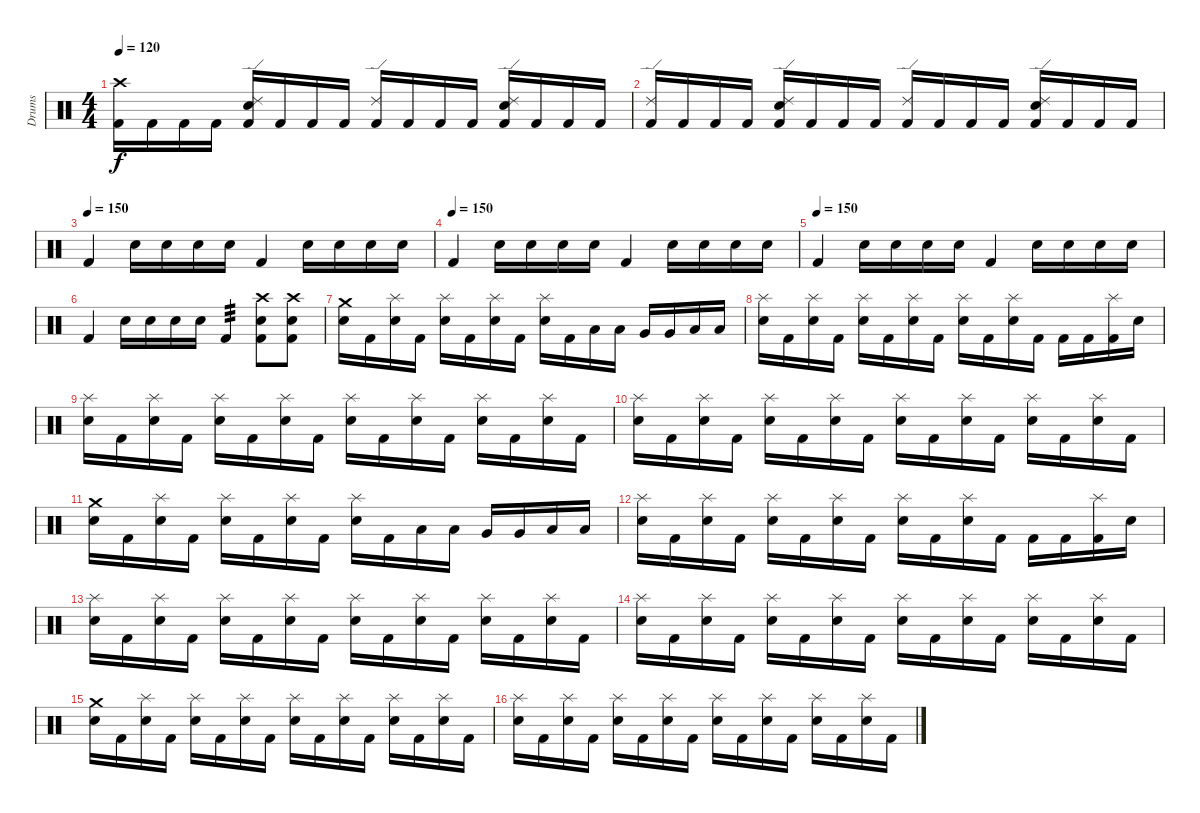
\track ("Drums" "Drums") {instrument percussion}
\staff {score}
\articulation defaults
\ts (4 4)
\tempo 120
\clef neutral
\ks c
("Crash high (hit)" "Kick (hit) 2").16{dy f} "Kick (hit) 2".16 "Kick (hit) 2".16 "Kick (hit) 2".16 ("Ride (edge) 2" "Electric Snare (hit)" "Kick (hit) 2").16 "Kick (hit) 2".16 "Kick (hit) 2".16 "Kick (hit) 2".16 ("Ride (edge) 2" "Kick (hit) 2").16 "Kick (hit) 2".16 "Kick (hit) 2".16 "Kick (hit) 2".16 ("Ride (edge) 2" "Electric Snare (hit)" "Kick (hit) 2").16 "Kick (hit) 2".16 "Kick (hit) 2".16 "Kick (hit) 2".16 |
("Ride (edge) 2" "Kick (hit) 2").16 "Kick (hit) 2".16 "Kick (hit) 2".16 "Kick (hit) 2".16 ("Ride (edge) 2" "Electric Snare (hit)" "Kick (hit) 2").16 "Kick (hit) 2".16 "Kick (hit) 2".16 "Kick (hit) 2".16 ("Ride (edge) 2" "Kick (hit) 2").16 "Kick (hit) 2".16 "Kick (hit) 2".16 "Kick (hit) 2".16 ("Ride (edge) 2" "Electric Snare (hit)" "Kick (hit) 2").16 "Kick (hit) 2".16 "Kick (hit) 2".16 "Kick (hit) 2".16 |
\tempo (150)
"Kick (hit) 2".4 "Electric Snare (hit)".16 "Electric Snare (hit)".16 "Electric Snare (hit)".16 "Electric Snare (hit)".16 "Kick (hit) 2".4 "Electric Snare (hit)".16 "Electric Snare (hit)".16 "Electric Snare (hit)".16 "Electric Snare (hit)".16 |
\tempo (150)
"Kick (hit) 2".4 "Electric Snare (hit)".16 "Electric Snare (hit)".16 "Electric Snare (hit)".16 "Electric Snare (hit)".16 "Kick (hit) 2".4 "Electric Snare (hit)".16 "Electric Snare (hit)".16 "Electric Snare (hit)".16 "Electric Snare (hit)".16 |
\tempo (150)
"Kick (hit) 2".4 "Electric Snare (hit)".16 "Electric Snare (hit)".16 "Electric Snare (hit)".16 "Electric Snare (hit)".16 "Kick (hit) 2".4 "Electric Snare (hit)".16 "Electric Snare (hit)".16 "Electric Snare (hit)".16 "Electric Snare (hit)".16 |
"Kick (hit) 2".4 "Electric Snare (hit)".16 "Electric Snare (hit)".16 "Electric Snare (hit)".16 "Electric Snare (hit)".16 "Kick (hit) 2".4{tp 3} ("Crash high (hit)" "Electric Snare (hit)" "Kick (hit) 2").8 ("Crash high (hit)" "Electric Snare (hit)" "Kick (hit) 2").8 |
("Crash medium (hit)" "Electric Snare (hit)").16 "Kick (hit) 2".16 ("Splash (hit)" "Electric Snare (hit)").16 "Kick (hit) 2".16 ("Splash (hit)" "Electric Snare (hit)").16 "Kick (hit) 2".16 ("Splash (hit)" "Electric Snare (hit)").16 "Kick (hit) 2".16 ("Splash (hit)" "Electric Snare (hit)").16 "Kick (hit) 2".16 "Low Tom (hit)".16 "Low Tom (hit)".16 "Very Low Tom (hit)".16 "Very Low Tom (hit)".16 "Low Floor Tom (hit)".16 "Low Floor Tom (hit)".16 |
("Splash (hit)" "Electric Snare (hit)").16 "Kick (hit) 2".16 ("Splash (hit)" "Electric Snare (hit)").16 "Kick (hit) 2".16 ("Splash (hit)" "Electric Snare (hit)").16 "Kick (hit) 2".16 ("Splash (hit)" "Electric Snare (hit)").16 "Kick (hit) 2".16 ("Splash (hit)" "Electric Snare (hit)").16 "Kick (hit) 2".16 ("Splash (hit)" "Electric Snare (hit)").16 "Kick (hit) 2".16 "Kick (hit) 2".16 "Kick (hit) 2".16 ("Splash (hit)" "Kick (hit) 2").16 "Electric Snare (hit)".16 |
("Splash (hit)" "Electric Snare (hit)").16 "Kick (hit) 2".16 ("Splash (hit)" "Electric Snare (hit)").16 "Kick (hit) 2".16 ("Splash (hit)" "Electric Snare (hit)").16 "Kick (hit) 2".16 ("Splash (hit)" "Electric Snare (hit)").16 "Kick (hit) 2".16 ("Splash (hit)" "Electric Snare (hit)").16 "Kick (hit) 2".16 ("Splash (hit)" "Electric Snare (hit)").16 "Kick (hit) 2".16 ("Splash (hit)" "Electric Snare (hit)").16 "Kick (hit) 2".16 ("Splash (hit)" "Electric Snare (hit)").16 "Kick (hit) 2".16 |
("Splash (hit)" "Electric Snare (hit)").16 "Kick (hit) 2".16 ("Splash (hit)" "Electric Snare (hit)").16 "Kick (hit) 2".16 ("Splash (hit)" "Electric Snare (hit)").16 "Kick (hit) 2".16 ("Splash (hit)" "Electric Snare (hit)").16 "Kick (hit) 2".16 ("Splash (hit)" "Electric Snare (hit)").16 "Kick (hit) 2".16 ("Splash (hit)" "Electric Snare (hit)").16 "Kick (hit) 2".16 ("Splash (hit)" "Electric Snare (hit)").16 "Kick (hit) 2".16 ("Splash (hit)" "Electric Snare (hit)").16 "Kick (hit) 2".16 |
("Crash medium (hit)" "Electric Snare (hit)").16 "Kick (hit) 2".16 ("Splash (hit)" "Electric Snare (hit)").16 "Kick (hit) 2".16 ("Splash (hit)" "Electric Snare (hit)").16 "Kick (hit) 2".16 ("Splash (hit)" "Electric Snare (hit)").16 "Kick (hit) 2".16 ("Splash (hit)" "Electric Snare (hit)").16 "Kick (hit) 2".16 "Low Tom (hit)".16 "Low Tom (hit)".16 "Very Low Tom (hit)".16 "Very Low Tom (hit)".16 "Low Floor Tom (hit)".16 "Low Floor Tom (hit)".16 |
("Splash (hit)" "Electric Snare (hit)").16 "Kick (hit) 2".16 ("Splash (hit)" "Electric Snare (hit)").16 "Kick (hit) 2".16 ("Splash (hit)" "Electric Snare (hit)").16 "Kick (hit) 2".16 ("Splash (hit)" "Electric Snare (hit)").16 "Kick (hit) 2".16 ("Splash (hit)" "Electric Snare (hit)").16 "Kick (hit) 2".16 ("Splash (hit)" "Electric Snare (hit)").16 "Kick (hit) 2".16 "Kick (hit) 2".16 "Kick (hit) 2".16 ("Splash (hit)" "Kick (hit) 2").16 "Electric Snare (hit)".16 |
("Splash (hit)" "Electric Snare (hit)").16 "Kick (hit) 2".16 ("Splash (hit)" "Electric Snare (hit)").16 "Kick (hit) 2".16 ("Splash (hit)" "Electric Snare (hit)").16 "Kick (hit) 2".16 ("Splash (hit)" "Electric Snare (hit)").16 "Kick (hit) 2".16 ("Splash (hit)" "Electric Snare (hit)").16 "Kick (hit) 2".16 ("Splash (hit)" "Electric Snare (hit)").16 "Kick (hit) 2".16 ("Splash (hit)" "Electric Snare (hit)").16 "Kick (hit) 2".16 ("Splash (hit)" "Electric Snare (hit)").16 "Kick (hit) 2".16 |
("Splash (hit)" "Electric Snare (hit)").16 "Kick (hit) 2".16 ("Splash (hit)" "Electric Snare (hit)").16 "Kick (hit) 2".16 ("Splash (hit)" "Electric Snare (hit)").16 "Kick (hit) 2".16 ("Splash (hit)" "Electric Snare (hit)").16 "Kick (hit) 2".16 ("Splash (hit)" "Electric Snare (hit)").16 "Kick (hit) 2".16 ("Splash (hit)" "Electric Snare (hit)").16 "Kick (hit) 2".16 ("Splash (hit)" "Electric Snare (hit)").16 "Kick (hit) 2".16 ("Splash (hit)" "Electric Snare (hit)").16 "Kick (hit) 2".16 |
("Crash medium (hit)" "Electric Snare (hit)").16 "Kick (hit) 2".16 ("Splash (hit)" "Electric Snare (hit)").16 "Kick (hit) 2".16 ("Splash (hit)" "Electric Snare (hit)").16 "Kick (hit) 2".16 ("Splash (hit)" "Electric Snare (hit)").16 "Kick (hit) 2".16 ("Splash (hit)" "Electric Snare (hit)").16 "Kick (hit) 2".16 ("Splash (hit)" "Electric Snare (hit)").16 "Kick (hit) 2".16 ("Splash (hit)" "Electric Snare (hit)").16 "Kick (hit) 2".16 ("Splash (hit)" "Electric Snare (hit)").16 "Kick (hit) 2".16 |
("Splash (hit)" "Electric Snare (hit)").16 "Kick (hit) 2".16 ("Splash (hit)" "Electric Snare (hit)").16 "Kick (hit) 2".16 ("Splash (hit)" "Electric Snare (hit)").16 "Kick (hit) 2".16 ("Splash (hit)" "Electric Snare (hit)").16 "Kick (hit) 2".16 ("Splash (hit)" "Electric Snare (hit)").16 "Kick (hit) 2".16 ("Splash (hit)" "Electric Snare (hit)").16 "Kick (hit) 2".16 ("Splash (hit)" "Electric Snare (hit)").16 "Kick (hit) 2".16 ("Splash (hit)" "Electric Snare (hit)").16 "Kick (hit) 2".16
